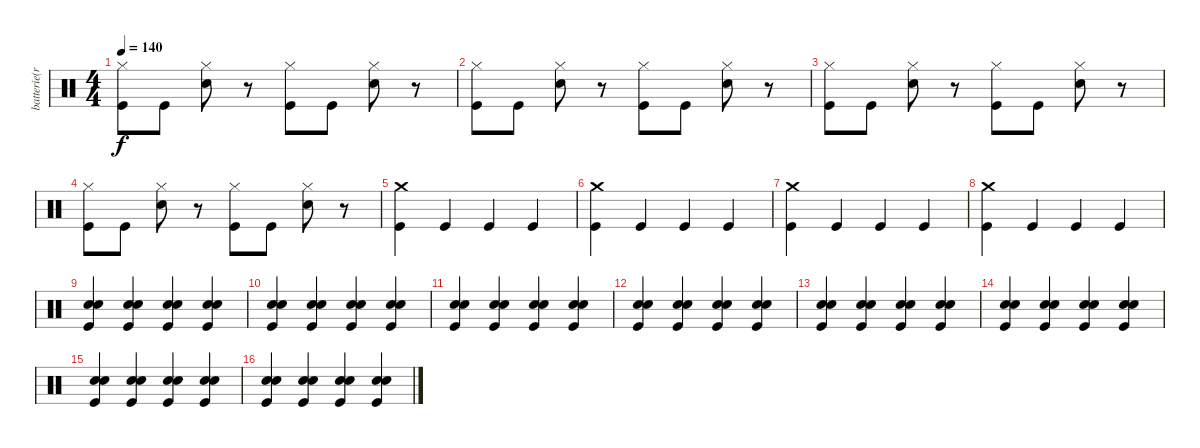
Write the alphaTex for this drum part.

\track ("batterie(ricky)" "batterie(r") {instrument percussion}
\staff {score}
\articulation defaults
\ts (4 4)
\tempo 140
\clef neutral
\ks c
("Hi-Hat (closed)" "Kick (hit)").8{dy f} "Kick (hit)".8 ("Hi-Hat (closed)" "Snare (hit) 2").8 r.8 ("Hi-Hat (closed)" "Kick (hit)").8 "Kick (hit)".8 ("Hi-Hat (closed)" "Snare (hit) 2").8 r.8 |
("Hi-Hat (closed)" "Kick (hit)").8 "Kick (hit)".8 ("Hi-Hat (closed)" "Snare (hit) 2").8 r.8 ("Hi-Hat (closed)" "Kick (hit)").8 "Kick (hit)".8 ("Hi-Hat (closed)" "Snare (hit) 2").8 r.8 |
("Hi-Hat (closed)" "Kick (hit)").8 "Kick (hit)".8 ("Hi-Hat (closed)" "Snare (hit) 2").8 r.8 ("Hi-Hat (closed)" "Kick (hit)").8 "Kick (hit)".8 ("Hi-Hat (closed)" "Snare (hit) 2").8 r.8 |
("Hi-Hat (closed)" "Kick (hit)").8 "Kick (hit)".8 ("Hi-Hat (closed)" "Snare (hit) 2").8 r.8 ("Hi-Hat (closed)" "Kick (hit)").8 "Kick (hit)".8 ("Hi-Hat (closed)" "Snare (hit) 2").8 r.8 |
("Crash medium (hit)" "Kick (hit)").4 "Kick (hit)".4 "Kick (hit)".4 "Kick (hit)".4 |
("Crash medium (hit)" "Kick (hit)").4 "Kick (hit)".4 "Kick (hit)".4 "Kick (hit)".4 |
("Crash medium (hit)" "Kick (hit)").4 "Kick (hit)".4 "Kick (hit)".4 "Kick (hit)".4 |
("Crash medium (hit)" "Kick (hit)").4 "Kick (hit)".4 "Kick (hit)".4 "Kick (hit)".4 |
("Hand Clap (hit)" "Snare (hit) 2" "Kick (hit)").4 ("Hand Clap (hit)" "Snare (hit) 2" "Kick (hit)").4 ("Hand Clap (hit)" "Snare (hit) 2" "Kick (hit)").4 ("Hand Clap (hit)" "Snare (hit) 2" "Kick (hit)").4 |
("Hand Clap (hit)" "Snare (hit) 2" "Kick (hit)").4 ("Hand Clap (hit)" "Snare (hit) 2" "Kick (hit)").4 ("Hand Clap (hit)" "Snare (hit) 2" "Kick (hit)").4 ("Hand Clap (hit)" "Snare (hit) 2" "Kick (hit)").4 |
("Hand Clap (hit)" "Snare (hit) 2" "Kick (hit)").4 ("Hand Clap (hit)" "Snare (hit) 2" "Kick (hit)").4 ("Hand Clap (hit)" "Snare (hit) 2" "Kick (hit)").4 ("Hand Clap (hit)" "Snare (hit) 2" "Kick (hit)").4 |
("Hand Clap (hit)" "Snare (hit) 2" "Kick (hit)").4 ("Hand Clap (hit)" "Snare (hit) 2" "Kick (hit)").4 ("Hand Clap (hit)" "Snare (hit) 2" "Kick (hit)").4 ("Hand Clap (hit)" "Snare (hit) 2" "Kick (hit)").4 |
("Hand Clap (hit)" "Snare (hit) 2" "Kick (hit)").4 ("Hand Clap (hit)" "Snare (hit) 2" "Kick (hit)").4 ("Hand Clap (hit)" "Snare (hit) 2" "Kick (hit)").4 ("Hand Clap (hit)" "Snare (hit) 2" "Kick (hit)").4 |
("Hand Clap (hit)" "Snare (hit) 2" "Kick (hit)").4 ("Hand Clap (hit)" "Snare (hit) 2" "Kick (hit)").4 ("Hand Clap (hit)" "Snare (hit) 2" "Kick (hit)").4 ("Hand Clap (hit)" "Snare (hit) 2" "Kick (hit)").4 |
("Hand Clap (hit)" "Snare (hit) 2" "Kick (hit)").4 ("Hand Clap (hit)" "Snare (hit) 2" "Kick (hit)").4 ("Hand Clap (hit)" "Snare (hit) 2" "Kick (hit)").4 ("Hand Clap (hit)" "Snare (hit) 2" "Kick (hit)").4 |
("Hand Clap (hit)" "Snare (hit) 2" "Kick (hit)").4 ("Hand Clap (hit)" "Snare (hit) 2" "Kick (hit)").4 ("Hand Clap (hit)" "Snare (hit) 2" "Kick (hit)").4 ("Hand Clap (hit)" "Snare (hit) 2" "Kick (hit)").4
